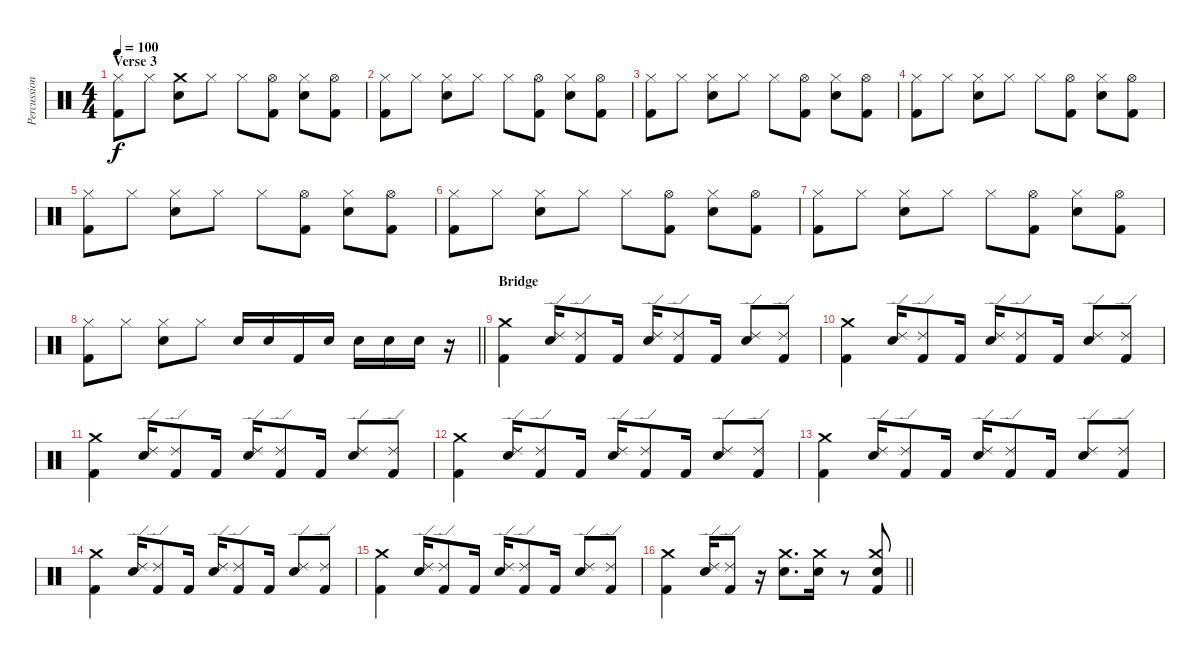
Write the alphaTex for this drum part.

\track ("Percussion" "Percussion") {instrument percussion}
\staff {score}
\articulation defaults
\ts (4 4)
\section ("" "Verse 3")
\tempo 100
\clef neutral
\ks c
("Hi-Hat (closed)" "Kick (hit) 2").8{dy f} "Hi-Hat (closed)".8 ("Crash medium (hit)" "Snare (hit) 2").8 "Hi-Hat (closed)".8 "Hi-Hat (closed)".8 ("Hi-Hat (open)" "Kick (hit) 2").8 ("Hi-Hat (closed)" "Snare (hit) 2").8 ("Hi-Hat (open)" "Kick (hit) 2").8 |
("Hi-Hat (closed)" "Kick (hit) 2").8 "Hi-Hat (closed)".8 ("Hi-Hat (closed)" "Snare (hit) 2").8 "Hi-Hat (closed)".8 "Hi-Hat (closed)".8 ("Hi-Hat (open)" "Kick (hit) 2").8 ("Hi-Hat (closed)" "Snare (hit) 2").8 ("Hi-Hat (open)" "Kick (hit) 2").8 |
("Hi-Hat (closed)" "Kick (hit) 2").8 "Hi-Hat (closed)".8 ("Hi-Hat (closed)" "Snare (hit) 2").8 "Hi-Hat (closed)".8 "Hi-Hat (closed)".8 ("Hi-Hat (open)" "Kick (hit) 2").8 ("Hi-Hat (closed)" "Snare (hit) 2").8 ("Hi-Hat (open)" "Kick (hit) 2").8 |
("Hi-Hat (closed)" "Kick (hit) 2").8 "Hi-Hat (closed)".8 ("Hi-Hat (closed)" "Snare (hit) 2").8 "Hi-Hat (closed)".8 "Hi-Hat (closed)".8 ("Hi-Hat (open)" "Kick (hit) 2").8 ("Hi-Hat (closed)" "Snare (hit) 2").8 ("Hi-Hat (open)" "Kick (hit) 2").8 |
("Hi-Hat (closed)" "Kick (hit) 2").8 "Hi-Hat (closed)".8 ("Hi-Hat (closed)" "Snare (hit) 2").8 "Hi-Hat (closed)".8 "Hi-Hat (closed)".8 ("Hi-Hat (open)" "Kick (hit) 2").8 ("Hi-Hat (closed)" "Snare (hit) 2").8 ("Hi-Hat (open)" "Kick (hit) 2").8 |
("Hi-Hat (closed)" "Kick (hit) 2").8 "Hi-Hat (closed)".8 ("Hi-Hat (closed)" "Snare (hit) 2").8 "Hi-Hat (closed)".8 "Hi-Hat (closed)".8 ("Hi-Hat (open)" "Kick (hit) 2").8 ("Hi-Hat (closed)" "Snare (hit) 2").8 ("Hi-Hat (open)" "Kick (hit) 2").8 |
("Hi-Hat (closed)" "Kick (hit) 2").8 "Hi-Hat (closed)".8 ("Hi-Hat (closed)" "Snare (hit) 2").8 "Hi-Hat (closed)".8 "Hi-Hat (closed)".8 ("Hi-Hat (open)" "Kick (hit) 2").8 ("Hi-Hat (closed)" "Snare (hit) 2").8 ("Hi-Hat (open)" "Kick (hit) 2").8 |
\barLineRight lightlight
("Hi-Hat (closed)" "Kick (hit) 2").8 "Hi-Hat (closed)".8 ("Hi-Hat (closed)" "Snare (hit) 2").8 "Hi-Hat (closed)".8 "Snare (hit) 2".16 "Snare (hit) 2".16 "Kick (hit) 2".16 "Snare (hit) 2".16 "Snare (hit) 2".16 "Snare (hit) 2".16 "Snare (hit) 2".16 r.16 |
\section ("" "Bridge")
("Crash medium (hit)" "Kick (hit) 2").4 ("Ride (edge) 2" "Snare (hit) 2").16 ("Ride (edge) 2" "Kick (hit) 2").8 "Kick (hit) 2".16 ("Ride (edge) 2" "Snare (hit) 2").16 ("Ride (edge) 2" "Kick (hit) 2").8 "Kick (hit) 2".16 ("Ride (edge) 2" "Snare (hit) 2").8 ("Ride (edge) 2" "Kick (hit) 2").8 |
("Crash medium (hit)" "Kick (hit) 2").4 ("Ride (edge) 2" "Snare (hit) 2").16 ("Ride (edge) 2" "Kick (hit) 2").8 "Kick (hit) 2".16 ("Ride (edge) 2" "Snare (hit) 2").16 ("Ride (edge) 2" "Kick (hit) 2").8 "Kick (hit) 2".16 ("Ride (edge) 2" "Snare (hit) 2").8 ("Ride (edge) 2" "Kick (hit) 2").8 |
("Crash medium (hit)" "Kick (hit) 2").4 ("Ride (edge) 2" "Snare (hit) 2").16 ("Ride (edge) 2" "Kick (hit) 2").8 "Kick (hit) 2".16 ("Ride (edge) 2" "Snare (hit) 2").16 ("Ride (edge) 2" "Kick (hit) 2").8 "Kick (hit) 2".16 ("Ride (edge) 2" "Snare (hit) 2").8 ("Ride (edge) 2" "Kick (hit) 2").8 |
("Crash medium (hit)" "Kick (hit) 2").4 ("Ride (edge) 2" "Snare (hit) 2").16 ("Ride (edge) 2" "Kick (hit) 2").8 "Kick (hit) 2".16 ("Ride (edge) 2" "Snare (hit) 2").16 ("Ride (edge) 2" "Kick (hit) 2").8 "Kick (hit) 2".16 ("Ride (edge) 2" "Snare (hit) 2").8 ("Ride (edge) 2" "Kick (hit) 2").8 |
("Crash medium (hit)" "Kick (hit) 2").4 ("Ride (edge) 2" "Snare (hit) 2").16 ("Ride (edge) 2" "Kick (hit) 2").8 "Kick (hit) 2".16 ("Ride (edge) 2" "Snare (hit) 2").16 ("Ride (edge) 2" "Kick (hit) 2").8 "Kick (hit) 2".16 ("Ride (edge) 2" "Snare (hit) 2").8 ("Ride (edge) 2" "Kick (hit) 2").8 |
("Crash medium (hit)" "Kick (hit) 2").4 ("Ride (edge) 2" "Snare (hit) 2").16 ("Ride (edge) 2" "Kick (hit) 2").8 "Kick (hit) 2".16 ("Ride (edge) 2" "Snare (hit) 2").16 ("Ride (edge) 2" "Kick (hit) 2").8 "Kick (hit) 2".16 ("Ride (edge) 2" "Snare (hit) 2").8 ("Ride (edge) 2" "Kick (hit) 2").8 |
("Crash medium (hit)" "Kick (hit) 2").4 ("Ride (edge) 2" "Snare (hit) 2").16 ("Ride (edge) 2" "Kick (hit) 2").8 "Kick (hit) 2".16 ("Ride (edge) 2" "Snare (hit) 2").16 ("Ride (edge) 2" "Kick (hit) 2").8 "Kick (hit) 2".16 ("Ride (edge) 2" "Snare (hit) 2").8 ("Ride (edge) 2" "Kick (hit) 2").8 |
\barLineRight lightlight
("Crash medium (hit)" "Kick (hit) 2").4 ("Ride (edge) 2" "Snare (hit) 2").16 ("Ride (edge) 2" "Kick (hit) 2").8 r.16 ("Crash medium (hit)" "Snare (hit) 2").8{d} ("Crash medium (hit)" "Snare (hit) 2").16 r.8 ("Crash medium (hit)" "Snare (hit) 2" "Kick (hit) 2").8
